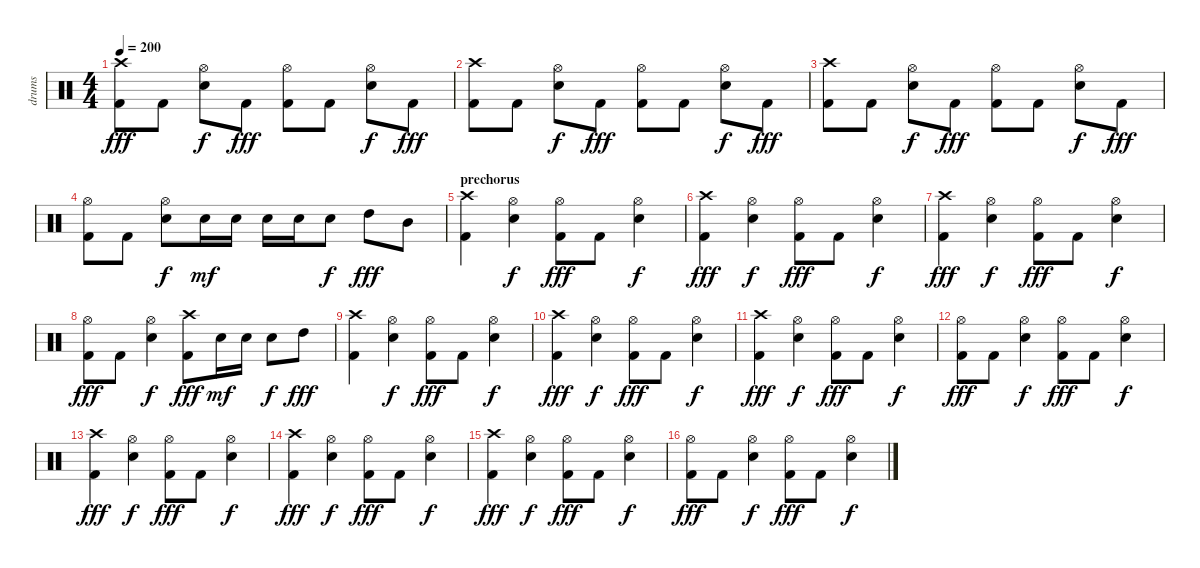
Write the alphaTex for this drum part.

\track ("drums" "drums") {instrument percussion}
\staff {score}
\articulation defaults
\ts (4 4)
\tempo 200
\clef neutral
\ks c
("Crash high (hit)" "Kick (hit) 2").8{dy fff} "Kick (hit) 2".8 ("Hi-Hat (open)" "Snare (hit) 2").8{dy f} "Kick (hit) 2".8{dy fff} ("Hi-Hat (open)" "Kick (hit) 2").8 "Kick (hit) 2".8 ("Hi-Hat (open)" "Snare (hit) 2").8{dy f} "Kick (hit) 2".8{dy fff} |
("Crash high (hit)" "Kick (hit) 2").8 "Kick (hit) 2".8 ("Hi-Hat (open)" "Snare (hit) 2").8{dy f} "Kick (hit) 2".8{dy fff} ("Hi-Hat (open)" "Kick (hit) 2").8 "Kick (hit) 2".8 ("Hi-Hat (open)" "Snare (hit) 2").8{dy f} "Kick (hit) 2".8{dy fff} |
("Crash high (hit)" "Kick (hit) 2").8 "Kick (hit) 2".8 ("Hi-Hat (open)" "Snare (hit) 2").8{dy f} "Kick (hit) 2".8{dy fff} ("Hi-Hat (open)" "Kick (hit) 2").8 "Kick (hit) 2".8 ("Hi-Hat (open)" "Snare (hit) 2").8{dy f} "Kick (hit) 2".8{dy fff} |
("Hi-Hat (open)" "Kick (hit) 2").8 "Kick (hit) 2".8 ("Hi-Hat (open)" "Snare (hit) 2").8{dy f} "Snare (hit) 2".16{dy mf} "Snare (hit) 2".16 "Snare (hit) 2".16 "Snare (hit) 2".16 "Snare (hit) 2".8{dy f} "High Tom (hit)".8{dy fff} "Mid Tom (hit)".8 |
\section ("" "prechorus")
("Crash high (hit)" "Kick (hit) 2").4 ("Hi-Hat (open)" "Snare (hit) 2").4{dy f} ("Hi-Hat (open)" "Kick (hit) 2").8{dy fff} "Kick (hit) 2".8 ("Hi-Hat (open)" "Snare (hit) 2").4{dy f} |
("Crash high (hit)" "Kick (hit) 2").4{dy fff} ("Hi-Hat (open)" "Snare (hit) 2").4{dy f} ("Hi-Hat (open)" "Kick (hit) 2").8{dy fff} "Kick (hit) 2".8 ("Hi-Hat (open)" "Snare (hit) 2").4{dy f} |
("Crash high (hit)" "Kick (hit) 2").4{dy fff} ("Hi-Hat (open)" "Snare (hit) 2").4{dy f} ("Hi-Hat (open)" "Kick (hit) 2").8{dy fff} "Kick (hit) 2".8 ("Hi-Hat (open)" "Snare (hit) 2").4{dy f} |
("Hi-Hat (open)" "Kick (hit) 2").8{dy fff} "Kick (hit) 2".8 ("Hi-Hat (open)" "Snare (hit) 2").4{dy f} ("Crash high (hit)" "Kick (hit) 2").8{dy fff} "Snare (hit) 2".16{dy mf} "Snare (hit) 2".16 "Snare (hit) 2".8{dy f} "High Tom (hit)".8{dy fff} |
("Crash high (hit)" "Kick (hit) 2").4 ("Hi-Hat (open)" "Snare (hit) 2").4{dy f} ("Hi-Hat (open)" "Kick (hit) 2").8{dy fff} "Kick (hit) 2".8 ("Hi-Hat (open)" "Snare (hit) 2").4{dy f} |
("Crash high (hit)" "Kick (hit) 2").4{dy fff} ("Hi-Hat (open)" "Snare (hit) 2").4{dy f} ("Hi-Hat (open)" "Kick (hit) 2").8{dy fff} "Kick (hit) 2".8 ("Hi-Hat (open)" "Snare (hit) 2").4{dy f} |
("Crash high (hit)" "Kick (hit) 2").4{dy fff} ("Hi-Hat (open)" "Snare (hit) 2").4{dy f} ("Hi-Hat (open)" "Kick (hit) 2").8{dy fff} "Kick (hit) 2".8 ("Hi-Hat (open)" "Snare (hit) 2").4{dy f} |
("Hi-Hat (open)" "Kick (hit) 2").8{dy fff} "Kick (hit) 2".8 ("Hi-Hat (open)" "Snare (hit) 2").4{dy f} ("Hi-Hat (open)" "Kick (hit) 2").8{dy fff} "Kick (hit) 2".8 ("Hi-Hat (open)" "Snare (hit) 2").4{dy f} |
("Crash high (hit)" "Kick (hit) 2").4{dy fff} ("Hi-Hat (open)" "Snare (hit) 2").4{dy f} ("Hi-Hat (open)" "Kick (hit) 2").8{dy fff} "Kick (hit) 2".8 ("Hi-Hat (open)" "Snare (hit) 2").4{dy f} |
("Crash high (hit)" "Kick (hit) 2").4{dy fff} ("Hi-Hat (open)" "Snare (hit) 2").4{dy f} ("Hi-Hat (open)" "Kick (hit) 2").8{dy fff} "Kick (hit) 2".8 ("Hi-Hat (open)" "Snare (hit) 2").4{dy f} |
("Crash high (hit)" "Kick (hit) 2").4{dy fff} ("Hi-Hat (open)" "Snare (hit) 2").4{dy f} ("Hi-Hat (open)" "Kick (hit) 2").8{dy fff} "Kick (hit) 2".8 ("Hi-Hat (open)" "Snare (hit) 2").4{dy f} |
("Hi-Hat (open)" "Kick (hit) 2").8{dy fff} "Kick (hit) 2".8 ("Hi-Hat (open)" "Snare (hit) 2").4{dy f} ("Hi-Hat (open)" "Kick (hit) 2").8{dy fff} "Kick (hit) 2".8 ("Hi-Hat (open)" "Snare (hit) 2").4{dy f}
